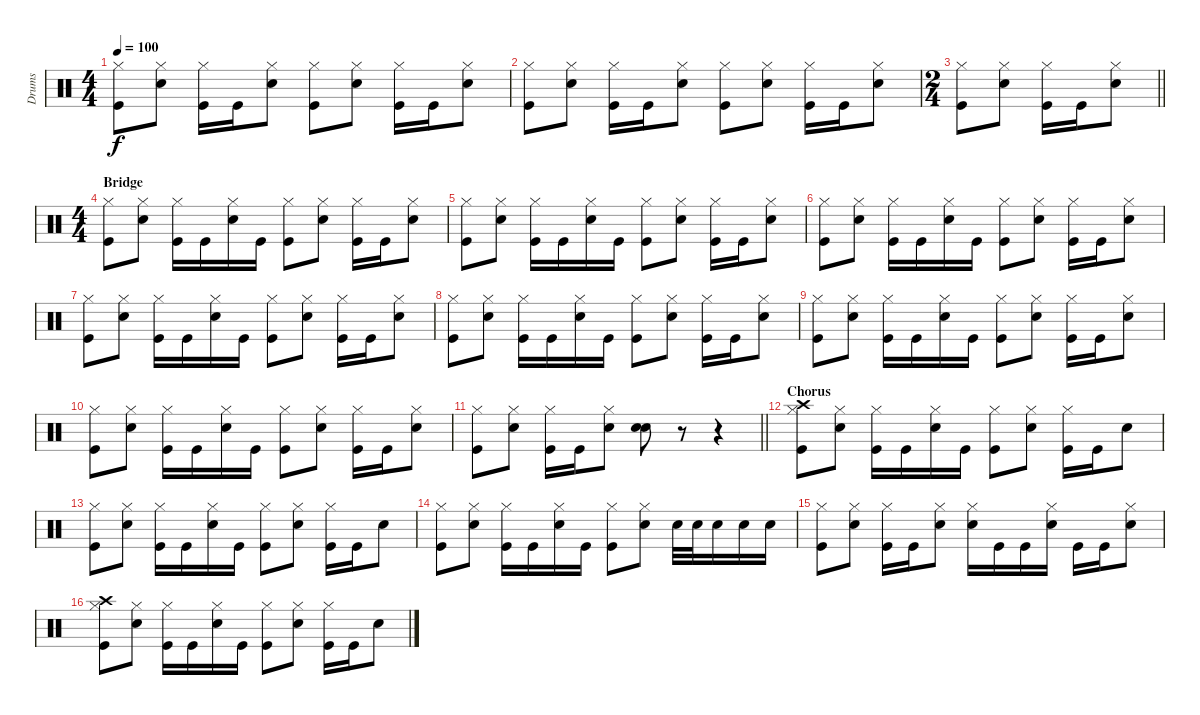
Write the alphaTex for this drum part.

\track ("Drums" "Drums") {instrument percussion}
\staff {score}
\articulation defaults
\ts (4 4)
\tempo 100
\clef neutral
\ks c
("Hi-Hat (closed)" "Kick (hit)").8{dy f} ("Hi-Hat (closed)" "Snare (hit) 2").8 ("Hi-Hat (closed)" "Kick (hit)").16 "Kick (hit)".16 ("Hi-Hat (closed)" "Snare (hit) 2").8 ("Hi-Hat (closed)" "Kick (hit)").8 ("Hi-Hat (closed)" "Snare (hit) 2").8 ("Hi-Hat (closed)" "Kick (hit)").16 "Kick (hit)".16 ("Hi-Hat (closed)" "Snare (hit) 2").8 |
("Hi-Hat (closed)" "Kick (hit)").8 ("Hi-Hat (closed)" "Snare (hit) 2").8 ("Hi-Hat (closed)" "Kick (hit)").16 "Kick (hit)".16 ("Hi-Hat (closed)" "Snare (hit) 2").8 ("Hi-Hat (closed)" "Kick (hit)").8 ("Hi-Hat (closed)" "Snare (hit) 2").8 ("Hi-Hat (closed)" "Kick (hit)").16 "Kick (hit)".16 ("Hi-Hat (closed)" "Snare (hit) 2").8 |
\ts (2 4)
\barLineRight lightlight
("Hi-Hat (closed)" "Kick (hit)").8 ("Hi-Hat (closed)" "Snare (hit) 2").8 ("Hi-Hat (closed)" "Kick (hit)").16 "Kick (hit)".16 ("Hi-Hat (closed)" "Snare (hit) 2").8 |
\ts (4 4)
\section ("" "Bridge")
("Hi-Hat (closed)" "Kick (hit)").8 ("Hi-Hat (closed)" "Snare (hit) 2").8 ("Hi-Hat (closed)" "Kick (hit)").16 "Kick (hit)".16 ("Hi-Hat (closed)" "Snare (hit) 2").16 "Kick (hit)".16 ("Hi-Hat (closed)" "Kick (hit)").8 ("Hi-Hat (closed)" "Snare (hit) 2").8 ("Hi-Hat (closed)" "Kick (hit)").16 "Kick (hit)".16 ("Hi-Hat (closed)" "Snare (hit) 2").8 |
("Hi-Hat (closed)" "Kick (hit)").8 ("Hi-Hat (closed)" "Snare (hit) 2").8 ("Hi-Hat (closed)" "Kick (hit)").16 "Kick (hit)".16 ("Hi-Hat (closed)" "Snare (hit) 2").16 "Kick (hit)".16 ("Hi-Hat (closed)" "Kick (hit)").8 ("Hi-Hat (closed)" "Snare (hit) 2").8 ("Hi-Hat (closed)" "Kick (hit)").16 "Kick (hit)".16 ("Hi-Hat (closed)" "Snare (hit) 2").8 |
("Hi-Hat (closed)" "Kick (hit)").8 ("Hi-Hat (closed)" "Snare (hit) 2").8 ("Hi-Hat (closed)" "Kick (hit)").16 "Kick (hit)".16 ("Hi-Hat (closed)" "Snare (hit) 2").16 "Kick (hit)".16 ("Hi-Hat (closed)" "Kick (hit)").8 ("Hi-Hat (closed)" "Snare (hit) 2").8 ("Hi-Hat (closed)" "Kick (hit)").16 "Kick (hit)".16 ("Hi-Hat (closed)" "Snare (hit) 2").8 |
("Hi-Hat (closed)" "Kick (hit)").8 ("Hi-Hat (closed)" "Snare (hit) 2").8 ("Hi-Hat (closed)" "Kick (hit)").16 "Kick (hit)".16 ("Hi-Hat (closed)" "Snare (hit) 2").16 "Kick (hit)".16 ("Hi-Hat (closed)" "Kick (hit)").8 ("Hi-Hat (closed)" "Snare (hit) 2").8 ("Hi-Hat (closed)" "Kick (hit)").16 "Kick (hit)".16 ("Hi-Hat (closed)" "Snare (hit) 2").8 |
("Hi-Hat (closed)" "Kick (hit)").8 ("Hi-Hat (closed)" "Snare (hit) 2").8 ("Hi-Hat (closed)" "Kick (hit)").16 "Kick (hit)".16 ("Hi-Hat (closed)" "Snare (hit) 2").16 "Kick (hit)".16 ("Hi-Hat (closed)" "Kick (hit)").8 ("Hi-Hat (closed)" "Snare (hit) 2").8 ("Hi-Hat (closed)" "Kick (hit)").16 "Kick (hit)".16 ("Hi-Hat (closed)" "Snare (hit) 2").8 |
("Hi-Hat (closed)" "Kick (hit)").8 ("Hi-Hat (closed)" "Snare (hit) 2").8 ("Hi-Hat (closed)" "Kick (hit)").16 "Kick (hit)".16 ("Hi-Hat (closed)" "Snare (hit) 2").16 "Kick (hit)".16 ("Hi-Hat (closed)" "Kick (hit)").8 ("Hi-Hat (closed)" "Snare (hit) 2").8 ("Hi-Hat (closed)" "Kick (hit)").16 "Kick (hit)".16 ("Hi-Hat (closed)" "Snare (hit) 2").8 |
("Hi-Hat (closed)" "Kick (hit)").8 ("Hi-Hat (closed)" "Snare (hit) 2").8 ("Hi-Hat (closed)" "Kick (hit)").16 "Kick (hit)".16 ("Hi-Hat (closed)" "Snare (hit) 2").16 "Kick (hit)".16 ("Hi-Hat (closed)" "Kick (hit)").8 ("Hi-Hat (closed)" "Snare (hit) 2").8 ("Hi-Hat (closed)" "Kick (hit)").16 "Kick (hit)".16 ("Hi-Hat (closed)" "Snare (hit) 2").8 |
\barLineRight lightlight
("Hi-Hat (closed)" "Kick (hit)").8 ("Hi-Hat (closed)" "Snare (hit) 2").8 ("Hi-Hat (closed)" "Kick (hit)").16 "Kick (hit)".16 ("Hi-Hat (closed)" "Snare (hit) 2").8 ("Snare (hit) 2" "Snare (hit) 2").8 r.8 r.4 |
\section ("" "Chorus")
("Hi-Hat (closed)" "Crash high (hit)" "Kick (hit)").8 ("Hi-Hat (closed)" "Snare (hit) 2").8 ("Hi-Hat (closed)" "Kick (hit)").16 "Kick (hit)".16 ("Hi-Hat (closed)" "Snare (hit) 2").16 "Kick (hit)".16 ("Hi-Hat (closed)" "Kick (hit)").8 ("Hi-Hat (closed)" "Snare (hit) 2").8 ("Hi-Hat (closed)" "Kick (hit)").16 "Kick (hit)".16 "Snare (hit) 2".8 |
("Hi-Hat (closed)" "Kick (hit)").8 ("Hi-Hat (closed)" "Snare (hit) 2").8 ("Hi-Hat (closed)" "Kick (hit)").16 "Kick (hit)".16 ("Hi-Hat (closed)" "Snare (hit) 2").16 "Kick (hit)".16 ("Hi-Hat (closed)" "Kick (hit)").8 ("Hi-Hat (closed)" "Snare (hit) 2").8 ("Hi-Hat (closed)" "Kick (hit)").16 "Kick (hit)".16 "Snare (hit) 2".8 |
("Hi-Hat (closed)" "Kick (hit)").8 ("Hi-Hat (closed)" "Snare (hit) 2").8 ("Hi-Hat (closed)" "Kick (hit)").16 "Kick (hit)".16 ("Hi-Hat (closed)" "Snare (hit) 2").16 "Kick (hit)".16 ("Hi-Hat (closed)" "Kick (hit)").8 ("Hi-Hat (closed)" "Snare (hit) 2").8 "Snare (hit) 2".32 "Snare (hit) 2".32 "Snare (hit) 2".16 "Snare (hit) 2".16 "Snare (hit) 2".16 |
("Hi-Hat (closed)" "Kick (hit)").8 ("Hi-Hat (closed)" "Snare (hit) 2").8 ("Hi-Hat (closed)" "Kick (hit)").16 "Kick (hit)".16 ("Hi-Hat (closed)" "Snare (hit) 2").8 ("Hi-Hat (closed)" "Snare (hit) 2").16 "Kick (hit)".16 "Kick (hit)".16 ("Hi-Hat (closed)" "Snare (hit) 2").16 "Kick (hit)".16 "Kick (hit)".16 ("Hi-Hat (closed)" "Snare (hit) 2").8 |
("Hi-Hat (closed)" "Crash high (hit)" "Kick (hit)").8 ("Hi-Hat (closed)" "Snare (hit) 2").8 ("Hi-Hat (closed)" "Kick (hit)").16 "Kick (hit)".16 ("Hi-Hat (closed)" "Snare (hit) 2").16 "Kick (hit)".16 ("Hi-Hat (closed)" "Kick (hit)").8 ("Hi-Hat (closed)" "Snare (hit) 2").8 ("Hi-Hat (closed)" "Kick (hit)").16 "Kick (hit)".16 "Snare (hit) 2".8
